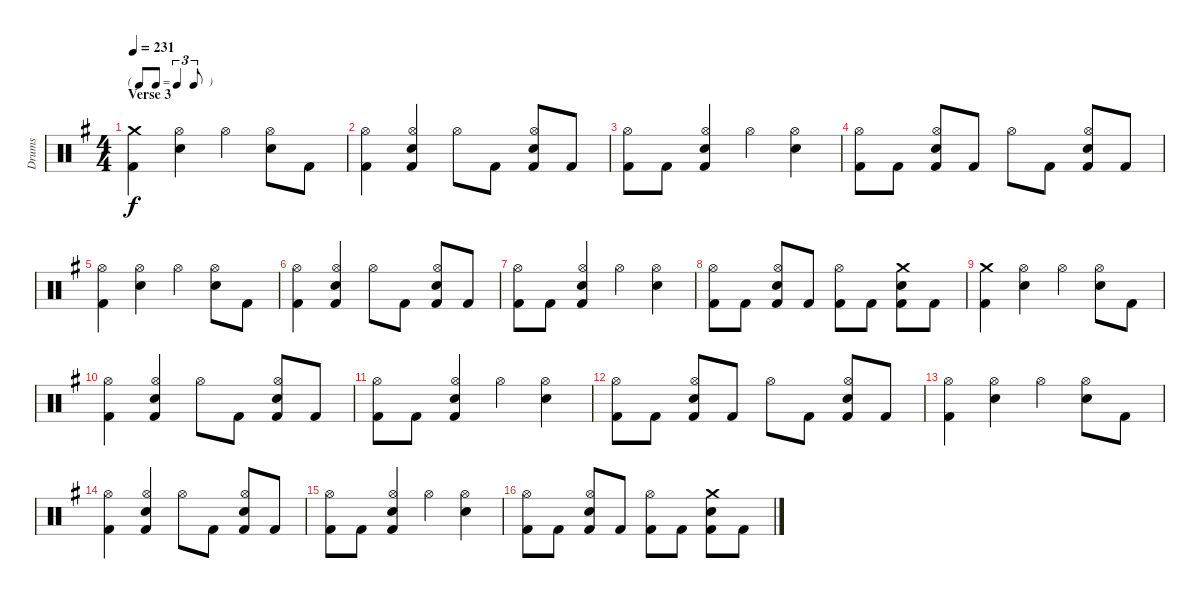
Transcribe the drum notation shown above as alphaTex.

\track ("Drums" "Drums") {instrument percussion}
\staff {score}
\articulation defaults
\ts (4 4)
\tf triplet8th
\section ("" "Verse 3")
\tempo 231
\clef neutral
\ks eminor
("Crash medium (hit)" "Kick (hit) 2").4{dy f} ("Hi-Hat (open)" "Electric Snare (hit)").4 "Hi-Hat (open)".4 ("Hi-Hat (open)" "Electric Snare (hit)").8 "Kick (hit) 2".8 |
("Hi-Hat (open)" "Kick (hit) 2").4 ("Hi-Hat (open)" "Electric Snare (hit)" "Kick (hit) 2").4 "Hi-Hat (open)".8 "Kick (hit) 2".8 ("Hi-Hat (open)" "Electric Snare (hit)" "Kick (hit) 2").8 "Kick (hit) 2".8 |
("Hi-Hat (open)" "Kick (hit) 2").8 "Kick (hit) 2".8 ("Hi-Hat (open)" "Electric Snare (hit)" "Kick (hit) 2").4 "Hi-Hat (open)".4 ("Hi-Hat (open)" "Electric Snare (hit)").4 |
("Hi-Hat (open)" "Kick (hit) 2").8 "Kick (hit) 2".8 ("Hi-Hat (open)" "Electric Snare (hit)" "Kick (hit) 2").8 "Kick (hit) 2".8 "Hi-Hat (open)".8 "Kick (hit) 2".8 ("Hi-Hat (open)" "Electric Snare (hit)" "Kick (hit) 2").8 "Kick (hit) 2".8 |
("Hi-Hat (open)" "Kick (hit) 2").4 ("Hi-Hat (open)" "Electric Snare (hit)").4 "Hi-Hat (open)".4 ("Hi-Hat (open)" "Electric Snare (hit)").8 "Kick (hit) 2".8 |
("Hi-Hat (open)" "Kick (hit) 2").4 ("Hi-Hat (open)" "Electric Snare (hit)" "Kick (hit) 2").4 "Hi-Hat (open)".8 "Kick (hit) 2".8 ("Hi-Hat (open)" "Electric Snare (hit)" "Kick (hit) 2").8 "Kick (hit) 2".8 |
("Hi-Hat (open)" "Kick (hit) 2").8 "Kick (hit) 2".8 ("Hi-Hat (open)" "Electric Snare (hit)" "Kick (hit) 2").4 "Hi-Hat (open)".4 ("Hi-Hat (open)" "Electric Snare (hit)").4 |
("Hi-Hat (open)" "Kick (hit) 2").8 "Kick (hit) 2".8 ("Hi-Hat (open)" "Electric Snare (hit)" "Kick (hit) 2").8 "Kick (hit) 2".8 ("Hi-Hat (open)" "Kick (hit) 2").8 "Kick (hit) 2".8 ("Crash medium (hit)" "Electric Snare (hit)" "Kick (hit) 2").8 "Kick (hit) 2".8 |
("Crash medium (hit)" "Kick (hit) 2").4 ("Hi-Hat (open)" "Electric Snare (hit)").4 "Hi-Hat (open)".4 ("Hi-Hat (open)" "Electric Snare (hit)").8 "Kick (hit) 2".8 |
("Hi-Hat (open)" "Kick (hit) 2").4 ("Hi-Hat (open)" "Electric Snare (hit)" "Kick (hit) 2").4 "Hi-Hat (open)".8 "Kick (hit) 2".8 ("Hi-Hat (open)" "Electric Snare (hit)" "Kick (hit) 2").8 "Kick (hit) 2".8 |
("Hi-Hat (open)" "Kick (hit) 2").8 "Kick (hit) 2".8 ("Hi-Hat (open)" "Electric Snare (hit)" "Kick (hit) 2").4 "Hi-Hat (open)".4 ("Hi-Hat (open)" "Electric Snare (hit)").4 |
("Hi-Hat (open)" "Kick (hit) 2").8 "Kick (hit) 2".8 ("Hi-Hat (open)" "Electric Snare (hit)" "Kick (hit) 2").8 "Kick (hit) 2".8 "Hi-Hat (open)".8 "Kick (hit) 2".8 ("Hi-Hat (open)" "Electric Snare (hit)" "Kick (hit) 2").8 "Kick (hit) 2".8 |
("Hi-Hat (open)" "Kick (hit) 2").4 ("Hi-Hat (open)" "Electric Snare (hit)").4 "Hi-Hat (open)".4 ("Hi-Hat (open)" "Electric Snare (hit)").8 "Kick (hit) 2".8 |
("Hi-Hat (open)" "Kick (hit) 2").4 ("Hi-Hat (open)" "Electric Snare (hit)" "Kick (hit) 2").4 "Hi-Hat (open)".8 "Kick (hit) 2".8 ("Hi-Hat (open)" "Electric Snare (hit)" "Kick (hit) 2").8 "Kick (hit) 2".8 |
("Hi-Hat (open)" "Kick (hit) 2").8 "Kick (hit) 2".8 ("Hi-Hat (open)" "Electric Snare (hit)" "Kick (hit) 2").4 "Hi-Hat (open)".4 ("Hi-Hat (open)" "Electric Snare (hit)").4 |
("Hi-Hat (open)" "Kick (hit) 2").8 "Kick (hit) 2".8 ("Hi-Hat (open)" "Electric Snare (hit)" "Kick (hit) 2").8 "Kick (hit) 2".8 ("Hi-Hat (open)" "Kick (hit) 2").8 "Kick (hit) 2".8 ("Crash medium (hit)" "Electric Snare (hit)" "Kick (hit) 2").8 "Kick (hit) 2".8
